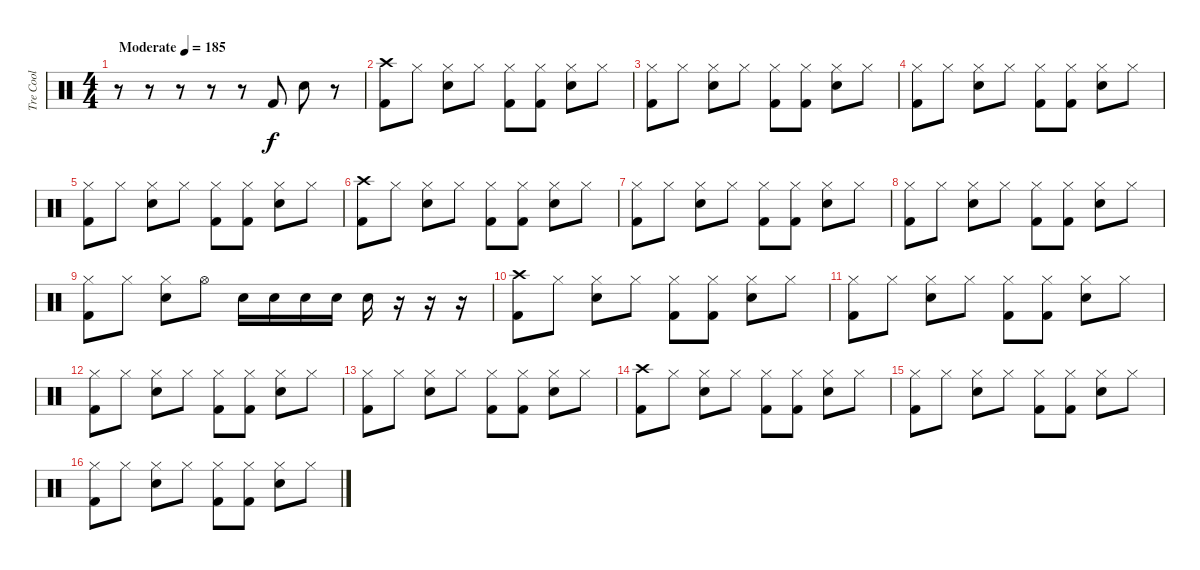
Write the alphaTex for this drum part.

\track ("Tre Cool" "Tre Cool") {instrument percussion}
\staff {score}
\articulation defaults
\ts (4 4)
\tempo (185 "Moderate")
\clef neutral
\ks c
r.8{dy f} r.8 r.8 r.8 r.8 "Kick (hit) 2".8 "Electric Snare (hit)".8 r.8 |
("Crash high (hit)" "Kick (hit) 2").8 "Hi-Hat (closed)".8 ("Electric Snare (hit)" "Hi-Hat (closed)").8 "Hi-Hat (closed)".8 ("Kick (hit) 2" "Hi-Hat (closed)").8 ("Kick (hit) 2" "Hi-Hat (closed)").8 ("Electric Snare (hit)" "Hi-Hat (closed)").8 "Hi-Hat (closed)".8 |
("Kick (hit) 2" "Hi-Hat (closed)").8 "Hi-Hat (closed)".8 ("Electric Snare (hit)" "Hi-Hat (closed)").8 "Hi-Hat (closed)".8 ("Kick (hit) 2" "Hi-Hat (closed)").8 ("Kick (hit) 2" "Hi-Hat (closed)").8 ("Electric Snare (hit)" "Hi-Hat (closed)").8 "Hi-Hat (closed)".8 |
("Kick (hit) 2" "Hi-Hat (closed)").8 "Hi-Hat (closed)".8 ("Electric Snare (hit)" "Hi-Hat (closed)").8 "Hi-Hat (closed)".8 ("Kick (hit) 2" "Hi-Hat (closed)").8 ("Kick (hit) 2" "Hi-Hat (closed)").8 ("Electric Snare (hit)" "Hi-Hat (closed)").8 "Hi-Hat (closed)".8 |
("Kick (hit) 2" "Hi-Hat (closed)").8 "Hi-Hat (closed)".8 ("Electric Snare (hit)" "Hi-Hat (closed)").8 "Hi-Hat (closed)".8 ("Kick (hit) 2" "Hi-Hat (closed)").8 ("Kick (hit) 2" "Hi-Hat (closed)").8 ("Electric Snare (hit)" "Hi-Hat (closed)").8 "Hi-Hat (closed)".8 |
("Crash high (hit)" "Kick (hit) 2").8 "Hi-Hat (closed)".8 ("Electric Snare (hit)" "Hi-Hat (closed)").8 "Hi-Hat (closed)".8 ("Kick (hit) 2" "Hi-Hat (closed)").8 ("Kick (hit) 2" "Hi-Hat (closed)").8 ("Electric Snare (hit)" "Hi-Hat (closed)").8 "Hi-Hat (closed)".8 |
("Kick (hit) 2" "Hi-Hat (closed)").8 "Hi-Hat (closed)".8 ("Electric Snare (hit)" "Hi-Hat (closed)").8 "Hi-Hat (closed)".8 ("Kick (hit) 2" "Hi-Hat (closed)").8 ("Kick (hit) 2" "Hi-Hat (closed)").8 ("Electric Snare (hit)" "Hi-Hat (closed)").8 "Hi-Hat (closed)".8 |
("Kick (hit) 2" "Hi-Hat (closed)").8 "Hi-Hat (closed)".8 ("Electric Snare (hit)" "Hi-Hat (closed)").8 "Hi-Hat (closed)".8 ("Kick (hit) 2" "Hi-Hat (closed)").8 ("Kick (hit) 2" "Hi-Hat (closed)").8 ("Electric Snare (hit)" "Hi-Hat (closed)").8 "Hi-Hat (closed)".8 |
("Kick (hit) 2" "Hi-Hat (closed)").8 "Hi-Hat (closed)".8 ("Electric Snare (hit)" "Hi-Hat (closed)").8 "Hi-Hat (open)".8 "Electric Snare (hit)".16 "Electric Snare (hit)".16 "Electric Snare (hit)".16 "Electric Snare (hit)".16 "Electric Snare (hit)".16 r.16 r.16 r.16 |
("Crash high (hit)" "Kick (hit) 2").8 "Hi-Hat (closed)".8 ("Electric Snare (hit)" "Hi-Hat (closed)").8 "Hi-Hat (closed)".8 ("Kick (hit) 2" "Hi-Hat (closed)").8 ("Kick (hit) 2" "Hi-Hat (closed)").8 ("Electric Snare (hit)" "Hi-Hat (closed)").8 "Hi-Hat (closed)".8 |
("Kick (hit) 2" "Hi-Hat (closed)").8 "Hi-Hat (closed)".8 ("Electric Snare (hit)" "Hi-Hat (closed)").8 "Hi-Hat (closed)".8 ("Kick (hit) 2" "Hi-Hat (closed)").8 ("Kick (hit) 2" "Hi-Hat (closed)").8 ("Electric Snare (hit)" "Hi-Hat (closed)").8 "Hi-Hat (closed)".8 |
("Kick (hit) 2" "Hi-Hat (closed)").8 "Hi-Hat (closed)".8 ("Electric Snare (hit)" "Hi-Hat (closed)").8 "Hi-Hat (closed)".8 ("Kick (hit) 2" "Hi-Hat (closed)").8 ("Kick (hit) 2" "Hi-Hat (closed)").8 ("Electric Snare (hit)" "Hi-Hat (closed)").8 "Hi-Hat (closed)".8 |
("Kick (hit) 2" "Hi-Hat (closed)").8 "Hi-Hat (closed)".8 ("Electric Snare (hit)" "Hi-Hat (closed)").8 "Hi-Hat (closed)".8 ("Kick (hit) 2" "Hi-Hat (closed)").8 ("Kick (hit) 2" "Hi-Hat (closed)").8 ("Electric Snare (hit)" "Hi-Hat (closed)").8 "Hi-Hat (closed)".8 |
("Crash high (hit)" "Kick (hit) 2").8 "Hi-Hat (closed)".8 ("Electric Snare (hit)" "Hi-Hat (closed)").8 "Hi-Hat (closed)".8 ("Kick (hit) 2" "Hi-Hat (closed)").8 ("Kick (hit) 2" "Hi-Hat (closed)").8 ("Electric Snare (hit)" "Hi-Hat (closed)").8 "Hi-Hat (closed)".8 |
("Kick (hit) 2" "Hi-Hat (closed)").8 "Hi-Hat (closed)".8 ("Electric Snare (hit)" "Hi-Hat (closed)").8 "Hi-Hat (closed)".8 ("Kick (hit) 2" "Hi-Hat (closed)").8 ("Kick (hit) 2" "Hi-Hat (closed)").8 ("Electric Snare (hit)" "Hi-Hat (closed)").8 "Hi-Hat (closed)".8 |
("Kick (hit) 2" "Hi-Hat (closed)").8 "Hi-Hat (closed)".8 ("Electric Snare (hit)" "Hi-Hat (closed)").8 "Hi-Hat (closed)".8 ("Kick (hit) 2" "Hi-Hat (closed)").8 ("Kick (hit) 2" "Hi-Hat (closed)").8 ("Electric Snare (hit)" "Hi-Hat (closed)").8 "Hi-Hat (closed)".8
